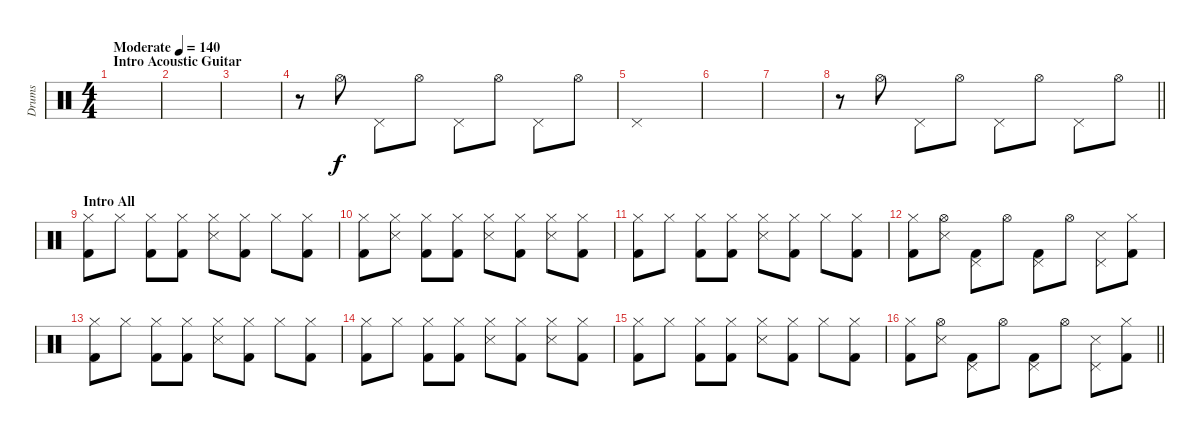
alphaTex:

\track ("Drums" "Drums") {instrument percussion}
\staff {score}
\articulation defaults
\ts (4 4)
\section ("" "Intro Acoustic Guitar")
\tempo (140 "Moderate")
\clef neutral
\ks c
|
|
|
r.8 "Hi-Hat (open)".8 "Pedal Hi-Hat (hit)".8 "Hi-Hat (open)".8 "Pedal Hi-Hat (hit)".8 "Hi-Hat (open)".8 "Pedal Hi-Hat (hit)".8 "Hi-Hat (open)".8 |
"Pedal Hi-Hat (hit)".1 |
|
|
\barLineRight lightlight
r.8 "Hi-Hat (open)".8 "Pedal Hi-Hat (hit)".8 "Hi-Hat (open)".8 "Pedal Hi-Hat (hit)".8 "Hi-Hat (open)".8 "Pedal Hi-Hat (hit)".8 "Hi-Hat (open)".8 |
\section ("" "Intro All")
("Kick (hit) 2" "Hi-Hat (closed)").8 "Hi-Hat (closed)".8 ("Kick (hit) 2" "Hi-Hat (closed)").8 ("Kick (hit) 2" "Hi-Hat (closed)").8 ("Snare (side stick) 3" "Hi-Hat (closed)").8 ("Kick (hit) 2" "Hi-Hat (closed)").8 "Hi-Hat (closed)".8 ("Kick (hit) 2" "Hi-Hat (closed)").8 |
("Kick (hit) 2" "Hi-Hat (closed)").8 ("Snare (side stick) 3" "Hi-Hat (closed)").8 ("Kick (hit) 2" "Hi-Hat (closed)").8 ("Kick (hit) 2" "Hi-Hat (closed)").8 ("Snare (side stick) 3" "Hi-Hat (closed)").8 ("Kick (hit) 2" "Hi-Hat (closed)").8 ("Snare (side stick) 3" "Hi-Hat (closed)").8 ("Kick (hit) 2" "Hi-Hat (closed)").8 |
("Kick (hit) 2" "Hi-Hat (closed)").8 "Hi-Hat (closed)".8 ("Kick (hit) 2" "Hi-Hat (closed)").8 ("Kick (hit) 2" "Hi-Hat (closed)").8 ("Snare (side stick) 3" "Hi-Hat (closed)").8 ("Kick (hit) 2" "Hi-Hat (closed)").8 "Hi-Hat (closed)".8 ("Kick (hit) 2" "Hi-Hat (closed)").8 |
("Kick (hit) 2" "Hi-Hat (closed)").8 ("Snare (side stick) 3" "Hi-Hat (open)").8 ("Kick (hit) 2" "Pedal Hi-Hat (hit)").8 "Hi-Hat (open)".8 ("Kick (hit) 2" "Pedal Hi-Hat (hit)").8 "Hi-Hat (open)".8 ("Snare (side stick) 3" "Pedal Hi-Hat (hit)").8 ("Kick (hit) 2" "Hi-Hat (closed)").8 |
("Kick (hit) 2" "Hi-Hat (closed)").8 "Hi-Hat (closed)".8 ("Kick (hit) 2" "Hi-Hat (closed)").8 ("Kick (hit) 2" "Hi-Hat (closed)").8 ("Snare (side stick) 3" "Hi-Hat (closed)").8 ("Kick (hit) 2" "Hi-Hat (closed)").8 "Hi-Hat (closed)".8 ("Kick (hit) 2" "Hi-Hat (closed)").8 |
("Kick (hit) 2" "Hi-Hat (closed)").8 "Hi-Hat (closed)".8 ("Kick (hit) 2" "Hi-Hat (closed)").8 ("Kick (hit) 2" "Hi-Hat (closed)").8 ("Snare (side stick) 3" "Hi-Hat (closed)").8 ("Kick (hit) 2" "Hi-Hat (closed)").8 ("Snare (side stick) 3" "Hi-Hat (closed)").8 ("Kick (hit) 2" "Hi-Hat (closed)").8 |
("Kick (hit) 2" "Hi-Hat (closed)").8 "Hi-Hat (closed)".8 ("Kick (hit) 2" "Hi-Hat (closed)").8 ("Kick (hit) 2" "Hi-Hat (closed)").8 ("Snare (side stick) 3" "Hi-Hat (closed)").8 ("Kick (hit) 2" "Hi-Hat (closed)").8 "Hi-Hat (closed)".8 ("Kick (hit) 2" "Hi-Hat (closed)").8 |
\barLineRight lightlight
("Kick (hit) 2" "Hi-Hat (closed)").8 ("Snare (side stick) 3" "Hi-Hat (open)").8 ("Kick (hit) 2" "Pedal Hi-Hat (hit)").8 "Hi-Hat (open)".8 ("Kick (hit) 2" "Pedal Hi-Hat (hit)").8 "Hi-Hat (open)".8 ("Snare (side stick) 3" "Pedal Hi-Hat (hit)").8 ("Kick (hit) 2" "Hi-Hat (closed)").8
